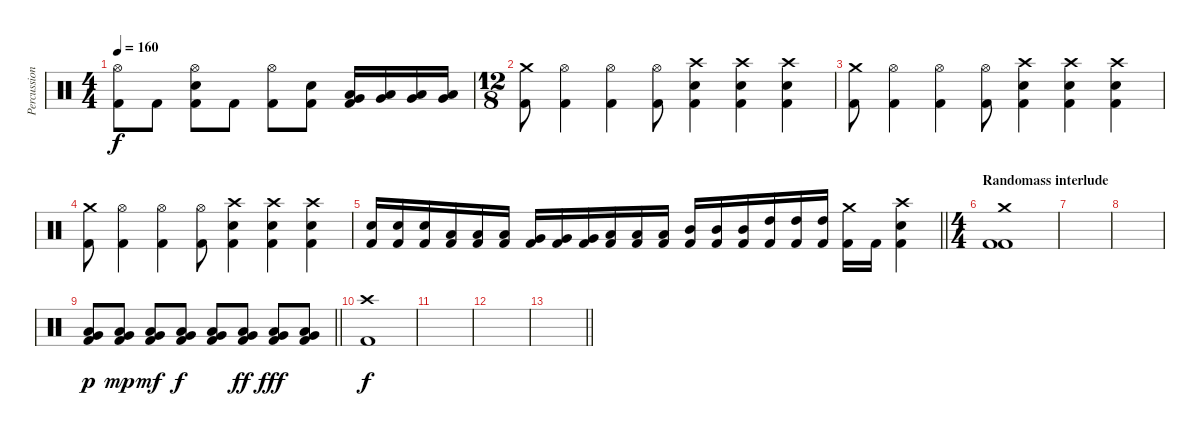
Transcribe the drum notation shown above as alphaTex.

\track ("Percussion" "Percussion") {instrument percussion}
\staff {score}
\articulation defaults
\ts (4 4)
\tempo 160
\clef neutral
\ks c
("Hi-Hat (open)" "Kick (hit) 2").8{dy f} "Kick (hit) 2".8 ("Hi-Hat (open)" "Electric Snare (hit)" "Kick (hit) 2").8 "Kick (hit) 2".8 ("Hi-Hat (open)" "Kick (hit) 2").8 ("Electric Snare (hit)" "Kick (hit) 2").8 ("Low Tom (hit)" "Very Low Tom (hit)" "Kick (hit) 2").16 ("Low Tom (hit)" "Very Low Tom (hit)").16 ("Low Tom (hit)" "Very Low Tom (hit)").16 ("Low Tom (hit)" "Very Low Tom (hit)").16 |
\ts (12 8)
("Crash medium (hit)" "Kick (hit) 2").8 ("Hi-Hat (open)" "Kick (hit) 2").4 ("Hi-Hat (open)" "Kick (hit) 2").4 ("Hi-Hat (open)" "Kick (hit) 2").8 ("Crash high (hit)" "Electric Snare (hit)" "Kick (hit) 2").4 ("Crash high (hit)" "Electric Snare (hit)" "Kick (hit) 2").4 ("Crash high (hit)" "Electric Snare (hit)" "Kick (hit) 2").4 |
("Crash medium (hit)" "Kick (hit) 2").8 ("Hi-Hat (open)" "Kick (hit) 2").4 ("Hi-Hat (open)" "Kick (hit) 2").4 ("Hi-Hat (open)" "Kick (hit) 2").8 ("Crash high (hit)" "Electric Snare (hit)" "Kick (hit) 2").4 ("Crash high (hit)" "Electric Snare (hit)" "Kick (hit) 2").4 ("Crash high (hit)" "Electric Snare (hit)" "Kick (hit) 2").4 |
("Crash medium (hit)" "Kick (hit) 2").8 ("Hi-Hat (open)" "Kick (hit) 2").4 ("Hi-Hat (open)" "Kick (hit) 2").4 ("Hi-Hat (open)" "Kick (hit) 2").8 ("Crash high (hit)" "Electric Snare (hit)" "Kick (hit) 2").4 ("Crash high (hit)" "Electric Snare (hit)" "Kick (hit) 2").4 ("Crash high (hit)" "Electric Snare (hit)" "Kick (hit) 2").4 |
\barLineRight lightlight
("Electric Snare (hit)" "Kick (hit) 2").16 ("Electric Snare (hit)" "Kick (hit) 2").16 ("Electric Snare (hit)" "Kick (hit) 2").16 ("Low Floor Tom (hit)" "Kick (hit) 2").16 ("Low Floor Tom (hit)" "Kick (hit) 2").16 ("Low Floor Tom (hit)" "Kick (hit) 2").16 ("Very Low Tom (hit)" "Kick (hit) 2").16 ("Very Low Tom (hit)" "Kick (hit) 2").16 ("Very Low Tom (hit)" "Kick (hit) 2").16 ("Low Tom (hit)" "Kick (hit) 2").16 ("Low Tom (hit)" "Kick (hit) 2").16 ("Low Tom (hit)" "Kick (hit) 2").16 ("Mid Tom (hit)" "Kick (hit) 2").16 ("Mid Tom (hit)" "Kick (hit) 2").16 ("Mid Tom (hit)" "Kick (hit) 2").16 ("High Tom (hit)" "Kick (hit) 2").16 ("High Tom (hit)" "Kick (hit) 2").16 ("High Tom (hit)" "Kick (hit) 2").16 ("Crash medium (hit)" "Kick (hit) 2").16 "Kick (hit) 2".16 ("Crash high (hit)" "Electric Snare (hit)" "Kick (hit) 2").4 |
\ts (4 4)
\section ("" "Randomass interlude")
("Crash medium (hit)" "Kick (hit) 2" "Kick (hit) 2").1 |
|
|
\barLineRight lightlight
("Low Tom (hit)" "Very Low Tom (hit)" "Kick (hit) 2").8{dy p} ("Low Tom (hit)" "Very Low Tom (hit)" "Kick (hit) 2").8{dy mp} ("Low Tom (hit)" "Very Low Tom (hit)" "Kick (hit) 2").8{dy mf} ("Low Tom (hit)" "Very Low Tom (hit)" "Kick (hit) 2").8{dy f} ("Low Tom (hit)" "Very Low Tom (hit)" "Kick (hit) 2").8 ("Low Tom (hit)" "Very Low Tom (hit)" "Kick (hit) 2").8{dy ff} ("Low Tom (hit)" "Very Low Tom (hit)" "Kick (hit) 2").8{dy fff} ("Low Tom (hit)" "Very Low Tom (hit)" "Kick (hit) 2").8 |
("Crash high (hit)" "Kick (hit) 2").1{dy f} |
|
|
\barLineRight lightlight
